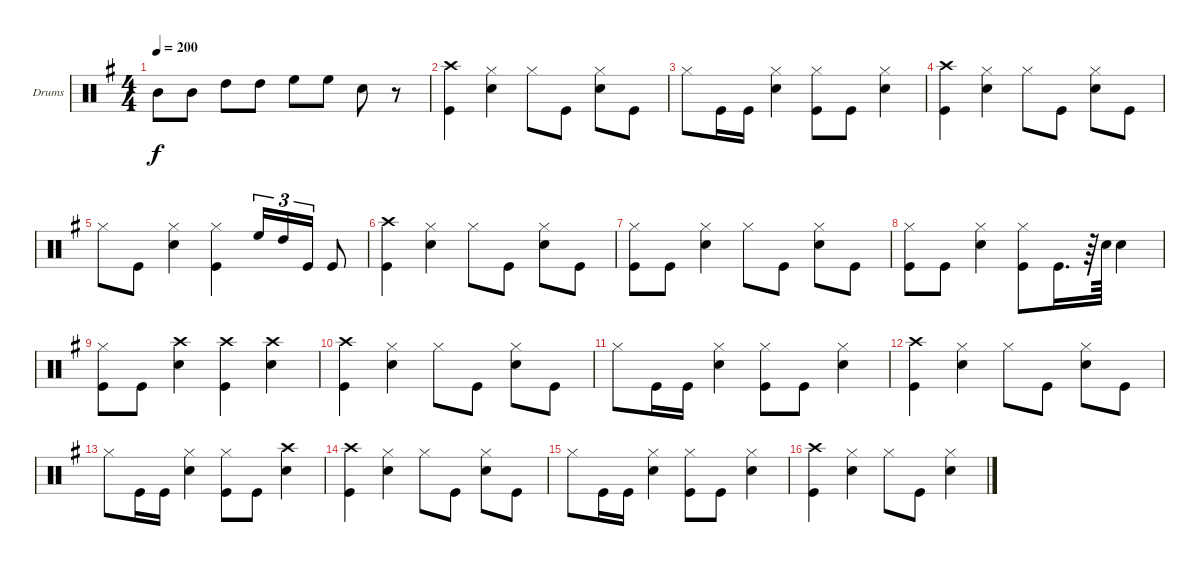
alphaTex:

\bracketExtendMode groupsimilarinstruments
\firstSystemTrackNameOrientation horizontal
\otherSystemsTrackNameOrientation horizontal
\track ("Drumkit" "Drums") {instrument percussion}
\staff {score}
\articulation defaults
\ts (4 4)
\tempo 200
\clef neutral
\ks g "Mid Tom (hit)".8{dy f} "Mid Tom (hit)".8 "High Tom (hit)".8 "High Tom (hit)".8 "High Floor Tom (hit)".8 "High Floor Tom (hit)".8 "Snare (hit) 2".8
r.8 |
("Kick (hit)" "Crash high (hit)").4 ("Snare (hit) 2" "Hi-Hat (closed)").4 "Hi-Hat (closed)".8 "Kick (hit)".8 ("Snare (hit) 2" "Hi-Hat (closed)").8 "Kick (hit)".8 |
"Hi-Hat (closed)".8 "Kick (hit)".16 "Kick (hit)".16 ("Snare (hit) 2" "Hi-Hat (closed)").4 ("Kick (hit)" "Hi-Hat (closed)").8 "Kick (hit)".8 ("Snare (hit) 2" "Hi-Hat (closed)").4 |
("Kick (hit)" "Crash high (hit)").4 ("Hi-Hat (closed)" "Snare (hit) 2").4 "Hi-Hat (closed)".8 "Kick (hit)".8 ("Snare (hit) 2" "Hi-Hat (closed)").8 "Kick (hit)".8 |
"Hi-Hat (closed)".8 "Kick (hit)".8 ("Snare (hit) 2" "Hi-Hat (closed)").4 ("Kick (hit)" "Hi-Hat (closed)").4 "High Floor Tom (hit)".16{tu (3 2)} "High Tom (hit)".16{tu (3 2)} "Kick (hit)".16{tu (3 2)} "Kick (hit)".8 |
("Kick (hit)" "Crash high (hit)").4 ("Snare (hit) 2" "Hi-Hat (closed)").4 "Hi-Hat (closed)".8 "Kick (hit)".8 ("Snare (hit) 2" "Hi-Hat (closed)").8 "Kick (hit)".8 |
("Kick (hit)" "Hi-Hat (closed)").8 "Kick (hit)".8 ("Snare (hit) 2" "Hi-Hat (closed)").4 "Hi-Hat (closed)".8 "Kick (hit)".8 ("Snare (hit) 2" "Hi-Hat (closed)").8 "Kick (hit)".8 |
("Hi-Hat (closed)" "Kick (hit)").8 "Kick (hit)".8 ("Snare (hit) 2" "Hi-Hat (closed)").4 ("Hi-Hat (closed)" "Kick (hit)").8 "Kick (hit)".16{d} r.64 "Snare (hit) 2".64 "Snare (hit) 2".4 |
("Kick (hit)" "Hi-Hat (closed)").8 "Kick (hit)".8 ("Crash high (hit)" "Snare (hit) 2").4 ("Kick (hit)" "Crash high (hit)").4 ("Snare (hit) 2" "Crash high (hit)").4 |
("Kick (hit)" "Crash high (hit)").4 ("Snare (hit) 2" "Hi-Hat (closed)").4 "Hi-Hat (closed)".8 "Kick (hit)".8 ("Snare (hit) 2" "Hi-Hat (closed)").8 "Kick (hit)".8 |
"Hi-Hat (closed)".8 "Kick (hit)".16 "Kick (hit)".16 ("Snare (hit) 2" "Hi-Hat (closed)").4 ("Kick (hit)" "Hi-Hat (closed)").8 "Kick (hit)".8 ("Snare (hit) 2" "Hi-Hat (closed)").4 |
("Kick (hit)" "Crash high (hit)").4 ("Hi-Hat (closed)" "Snare (hit) 2").4 "Hi-Hat (closed)".8 "Kick (hit)".8 ("Snare (hit) 2" "Hi-Hat (closed)").8 "Kick (hit)".8 |
"Hi-Hat (closed)".8 "Kick (hit)".16 "Kick (hit)".16 ("Snare (hit) 2" "Hi-Hat (closed)").4 ("Kick (hit)" "Hi-Hat (closed)").8 "Kick (hit)".8 ("Crash high (hit)" "Snare (hit) 2").4 |
("Kick (hit)" "Crash high (hit)").4 ("Hi-Hat (closed)" "Snare (hit) 2").4 "Hi-Hat (closed)".8 "Kick (hit)".8 ("Snare (hit) 2" "Hi-Hat (closed)").8 "Kick (hit)".8 |
"Hi-Hat (closed)".8 "Kick (hit)".16 "Kick (hit)".16 ("Snare (hit) 2" "Hi-Hat (closed)").4 ("Kick (hit)" "Hi-Hat (closed)").8 "Kick (hit)".8 ("Snare (hit) 2" "Hi-Hat (closed)").4 |
("Kick (hit)" "Crash high (hit)").4 ("Hi-Hat (closed)" "Snare (hit) 2").4 "Hi-Hat (closed)".8 "Kick (hit)".8 ("Snare (hit) 2" "Hi-Hat (closed)").4
